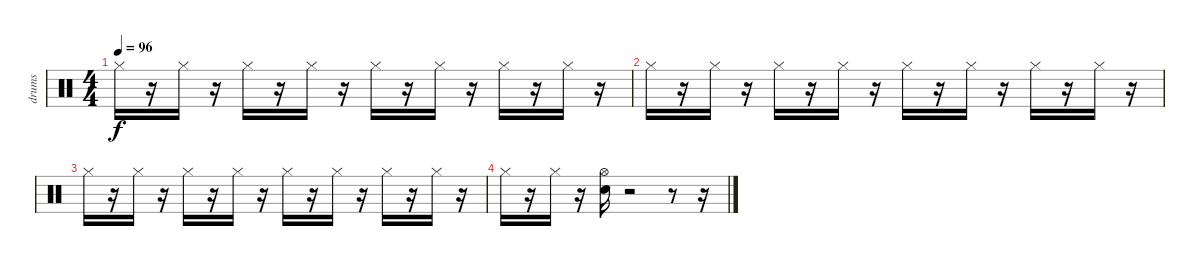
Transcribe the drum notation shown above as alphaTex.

\track ("drums" "drums") {instrument percussion}
\staff {score}
\articulation defaults
\ts (4 4)
\tempo 96
\clef neutral
\ks c "Hi-Hat (closed)".16{dy f}
r.16 "Hi-Hat (closed)".16 r.16 "Hi-Hat (closed)".16 r.16 "Hi-Hat (closed)".16 r.16 "Hi-Hat (closed)".16 r.16 "Hi-Hat (closed)".16 r.16 "Hi-Hat (closed)".16 r.16 "Hi-Hat (closed)".16 r.16 |
"Hi-Hat (closed)".16 r.16 "Hi-Hat (closed)".16 r.16 "Hi-Hat (closed)".16 r.16 "Hi-Hat (closed)".16 r.16 "Hi-Hat (closed)".16 r.16 "Hi-Hat (closed)".16 r.16 "Hi-Hat (closed)".16 r.16 "Hi-Hat (closed)".16 r.16 |
"Hi-Hat (closed)".16 r.16 "Hi-Hat (closed)".16 r.16 "Hi-Hat (closed)".16 r.16 "Hi-Hat (closed)".16 r.16 "Hi-Hat (closed)".16 r.16 "Hi-Hat (closed)".16 r.16 "Hi-Hat (closed)".16 r.16 "Hi-Hat (closed)".16 r.16 |
"Hi-Hat (closed)".16 r.16 "Hi-Hat (closed)".16 r.16 ("Electric Snare (hit)" "Hi-Hat (open)").16 r.2 r.8 r.16
